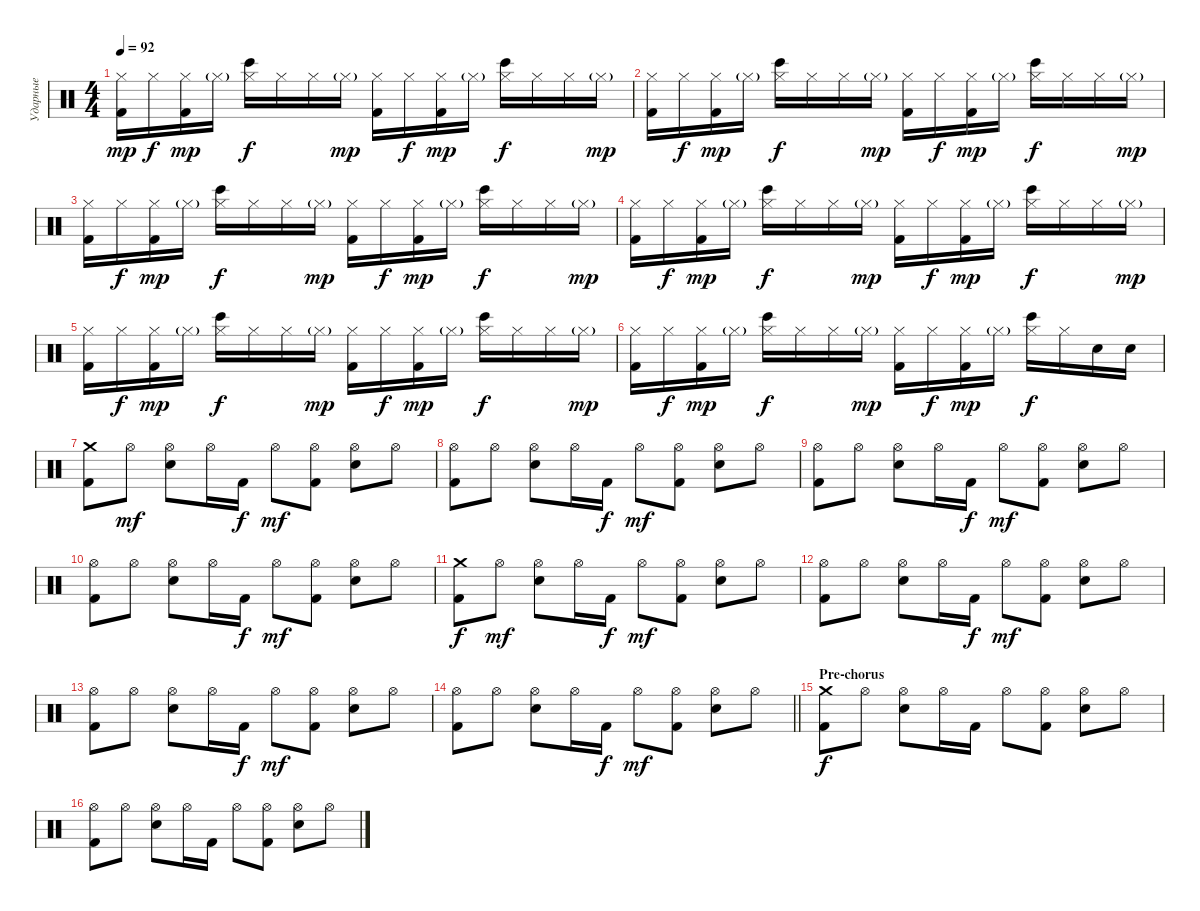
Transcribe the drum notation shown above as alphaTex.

\track ("Ударные" "Ударные") {instrument percussion}
\staff {score}
\articulation defaults
\ts (4 4)
\tempo 92
\clef neutral
\ks c
("Hi-Hat (closed)" "Kick (hit) 2").16{dy mp} "Hi-Hat (closed)".16{dy f} ("Hi-Hat (closed)" "Kick (hit) 2").16{dy mp} "Hi-Hat (closed)"{g}.16 ("Hi-Hat (closed)" "Bongo High (hit)").16{dy f} "Hi-Hat (closed)".16 "Hi-Hat (closed)".16 "Hi-Hat (closed)"{g}.16{dy mp} ("Hi-Hat (closed)" "Kick (hit) 2").16 "Hi-Hat (closed)".16{dy f} ("Hi-Hat (closed)" "Kick (hit) 2").16{dy mp} "Hi-Hat (closed)"{g}.16 ("Hi-Hat (closed)" "Bongo High (hit)").16{dy f} "Hi-Hat (closed)".16 "Hi-Hat (closed)".16 "Hi-Hat (closed)"{g}.16{dy mp} |
("Hi-Hat (closed)" "Kick (hit) 2").16 "Hi-Hat (closed)".16{dy f} ("Hi-Hat (closed)" "Kick (hit) 2").16{dy mp} "Hi-Hat (closed)"{g}.16 ("Hi-Hat (closed)" "Bongo High (hit)").16{dy f} "Hi-Hat (closed)".16 "Hi-Hat (closed)".16 "Hi-Hat (closed)"{g}.16{dy mp} ("Hi-Hat (closed)" "Kick (hit) 2").16 "Hi-Hat (closed)".16{dy f} ("Hi-Hat (closed)" "Kick (hit) 2").16{dy mp} "Hi-Hat (closed)"{g}.16 ("Hi-Hat (closed)" "Bongo High (hit)").16{dy f} "Hi-Hat (closed)".16 "Hi-Hat (closed)".16 "Hi-Hat (closed)"{g}.16{dy mp} |
("Hi-Hat (closed)" "Kick (hit) 2").16 "Hi-Hat (closed)".16{dy f} ("Hi-Hat (closed)" "Kick (hit) 2").16{dy mp} "Hi-Hat (closed)"{g}.16 ("Hi-Hat (closed)" "Bongo High (hit)").16{dy f} "Hi-Hat (closed)".16 "Hi-Hat (closed)".16 "Hi-Hat (closed)"{g}.16{dy mp} ("Hi-Hat (closed)" "Kick (hit) 2").16 "Hi-Hat (closed)".16{dy f} ("Hi-Hat (closed)" "Kick (hit) 2").16{dy mp} "Hi-Hat (closed)"{g}.16 ("Hi-Hat (closed)" "Bongo High (hit)").16{dy f} "Hi-Hat (closed)".16 "Hi-Hat (closed)".16 "Hi-Hat (closed)"{g}.16{dy mp} |
("Hi-Hat (closed)" "Kick (hit) 2").16 "Hi-Hat (closed)".16{dy f} ("Hi-Hat (closed)" "Kick (hit) 2").16{dy mp} "Hi-Hat (closed)"{g}.16 ("Hi-Hat (closed)" "Bongo High (hit)").16{dy f} "Hi-Hat (closed)".16 "Hi-Hat (closed)".16 "Hi-Hat (closed)"{g}.16{dy mp} ("Hi-Hat (closed)" "Kick (hit) 2").16 "Hi-Hat (closed)".16{dy f} ("Hi-Hat (closed)" "Kick (hit) 2").16{dy mp} "Hi-Hat (closed)"{g}.16 ("Hi-Hat (closed)" "Bongo High (hit)").16{dy f} "Hi-Hat (closed)".16 "Hi-Hat (closed)".16 "Hi-Hat (closed)"{g}.16{dy mp} |
("Hi-Hat (closed)" "Kick (hit) 2").16 "Hi-Hat (closed)".16{dy f} ("Hi-Hat (closed)" "Kick (hit) 2").16{dy mp} "Hi-Hat (closed)"{g}.16 ("Hi-Hat (closed)" "Bongo High (hit)").16{dy f} "Hi-Hat (closed)".16 "Hi-Hat (closed)".16 "Hi-Hat (closed)"{g}.16{dy mp} ("Hi-Hat (closed)" "Kick (hit) 2").16 "Hi-Hat (closed)".16{dy f} ("Hi-Hat (closed)" "Kick (hit) 2").16{dy mp} "Hi-Hat (closed)"{g}.16 ("Hi-Hat (closed)" "Bongo High (hit)").16{dy f} "Hi-Hat (closed)".16 "Hi-Hat (closed)".16 "Hi-Hat (closed)"{g}.16{dy mp} |
("Hi-Hat (closed)" "Kick (hit) 2").16 "Hi-Hat (closed)".16{dy f} ("Hi-Hat (closed)" "Kick (hit) 2").16{dy mp} "Hi-Hat (closed)"{g}.16 ("Hi-Hat (closed)" "Bongo High (hit)").16{dy f} "Hi-Hat (closed)".16 "Hi-Hat (closed)".16 "Hi-Hat (closed)"{g}.16{dy mp} ("Hi-Hat (closed)" "Kick (hit) 2").16 "Hi-Hat (closed)".16{dy f} ("Hi-Hat (closed)" "Kick (hit) 2").16{dy mp} "Hi-Hat (closed)"{g}.16 ("Hi-Hat (closed)" "Bongo High (hit)").16{dy f} "Hi-Hat (closed)".16 "Electric Snare (hit)".16 "Electric Snare (hit)".16 |
("Crash medium (hit)" "Kick (hit) 2").8 "Hi-Hat (open)".8{dy mf} ("Hi-Hat (open)" "Electric Snare (hit)").8 "Hi-Hat (open)".16 "Kick (hit) 2".16{dy f} "Hi-Hat (open)".8{dy mf} ("Hi-Hat (open)" "Kick (hit) 2").8 ("Hi-Hat (open)" "Electric Snare (hit)").8 "Hi-Hat (open)".8 |
("Hi-Hat (open)" "Kick (hit) 2").8 "Hi-Hat (open)".8 ("Hi-Hat (open)" "Electric Snare (hit)").8 "Hi-Hat (open)".16 "Kick (hit) 2".16{dy f} "Hi-Hat (open)".8{dy mf} ("Hi-Hat (open)" "Kick (hit) 2").8 ("Hi-Hat (open)" "Electric Snare (hit)").8 "Hi-Hat (open)".8 |
("Hi-Hat (open)" "Kick (hit) 2").8 "Hi-Hat (open)".8 ("Hi-Hat (open)" "Electric Snare (hit)").8 "Hi-Hat (open)".16 "Kick (hit) 2".16{dy f} "Hi-Hat (open)".8{dy mf} ("Hi-Hat (open)" "Kick (hit) 2").8 ("Hi-Hat (open)" "Electric Snare (hit)").8 "Hi-Hat (open)".8 |
("Hi-Hat (open)" "Kick (hit) 2").8 "Hi-Hat (open)".8 ("Hi-Hat (open)" "Electric Snare (hit)").8 "Hi-Hat (open)".16 "Kick (hit) 2".16{dy f} "Hi-Hat (open)".8{dy mf} ("Hi-Hat (open)" "Kick (hit) 2").8 ("Hi-Hat (open)" "Electric Snare (hit)").8 "Hi-Hat (open)".8 |
("Crash medium (hit)" "Kick (hit) 2").8{dy f} "Hi-Hat (open)".8{dy mf} ("Hi-Hat (open)" "Electric Snare (hit)").8 "Hi-Hat (open)".16 "Kick (hit) 2".16{dy f} "Hi-Hat (open)".8{dy mf} ("Hi-Hat (open)" "Kick (hit) 2").8 ("Hi-Hat (open)" "Electric Snare (hit)").8 "Hi-Hat (open)".8 |
("Hi-Hat (open)" "Kick (hit) 2").8 "Hi-Hat (open)".8 ("Hi-Hat (open)" "Electric Snare (hit)").8 "Hi-Hat (open)".16 "Kick (hit) 2".16{dy f} "Hi-Hat (open)".8{dy mf} ("Hi-Hat (open)" "Kick (hit) 2").8 ("Hi-Hat (open)" "Electric Snare (hit)").8 "Hi-Hat (open)".8 |
("Hi-Hat (open)" "Kick (hit) 2").8 "Hi-Hat (open)".8 ("Hi-Hat (open)" "Electric Snare (hit)").8 "Hi-Hat (open)".16 "Kick (hit) 2".16{dy f} "Hi-Hat (open)".8{dy mf} ("Hi-Hat (open)" "Kick (hit) 2").8 ("Hi-Hat (open)" "Electric Snare (hit)").8 "Hi-Hat (open)".8 |
\barLineRight lightlight
("Hi-Hat (open)" "Kick (hit) 2").8 "Hi-Hat (open)".8 ("Hi-Hat (open)" "Electric Snare (hit)").8 "Hi-Hat (open)".16 "Kick (hit) 2".16{dy f} "Hi-Hat (open)".8{dy mf} ("Hi-Hat (open)" "Kick (hit) 2").8 ("Hi-Hat (open)" "Electric Snare (hit)").8 "Hi-Hat (open)".8 |
\section ("" "Pre-chorus")
("Crash medium (hit)" "Kick (hit) 2").8{dy f} "Hi-Hat (open)".8 ("Hi-Hat (open)" "Electric Snare (hit)").8 "Hi-Hat (open)".16 "Kick (hit) 2".16 "Hi-Hat (open)".8 ("Hi-Hat (open)" "Kick (hit) 2").8 ("Hi-Hat (open)" "Electric Snare (hit)").8 "Hi-Hat (open)".8 |
("Hi-Hat (open)" "Kick (hit) 2").8 "Hi-Hat (open)".8 ("Hi-Hat (open)" "Electric Snare (hit)").8 "Hi-Hat (open)".16 "Kick (hit) 2".16 "Hi-Hat (open)".8 ("Hi-Hat (open)" "Kick (hit) 2").8 ("Hi-Hat (open)" "Electric Snare (hit)").8 "Hi-Hat (open)".8
